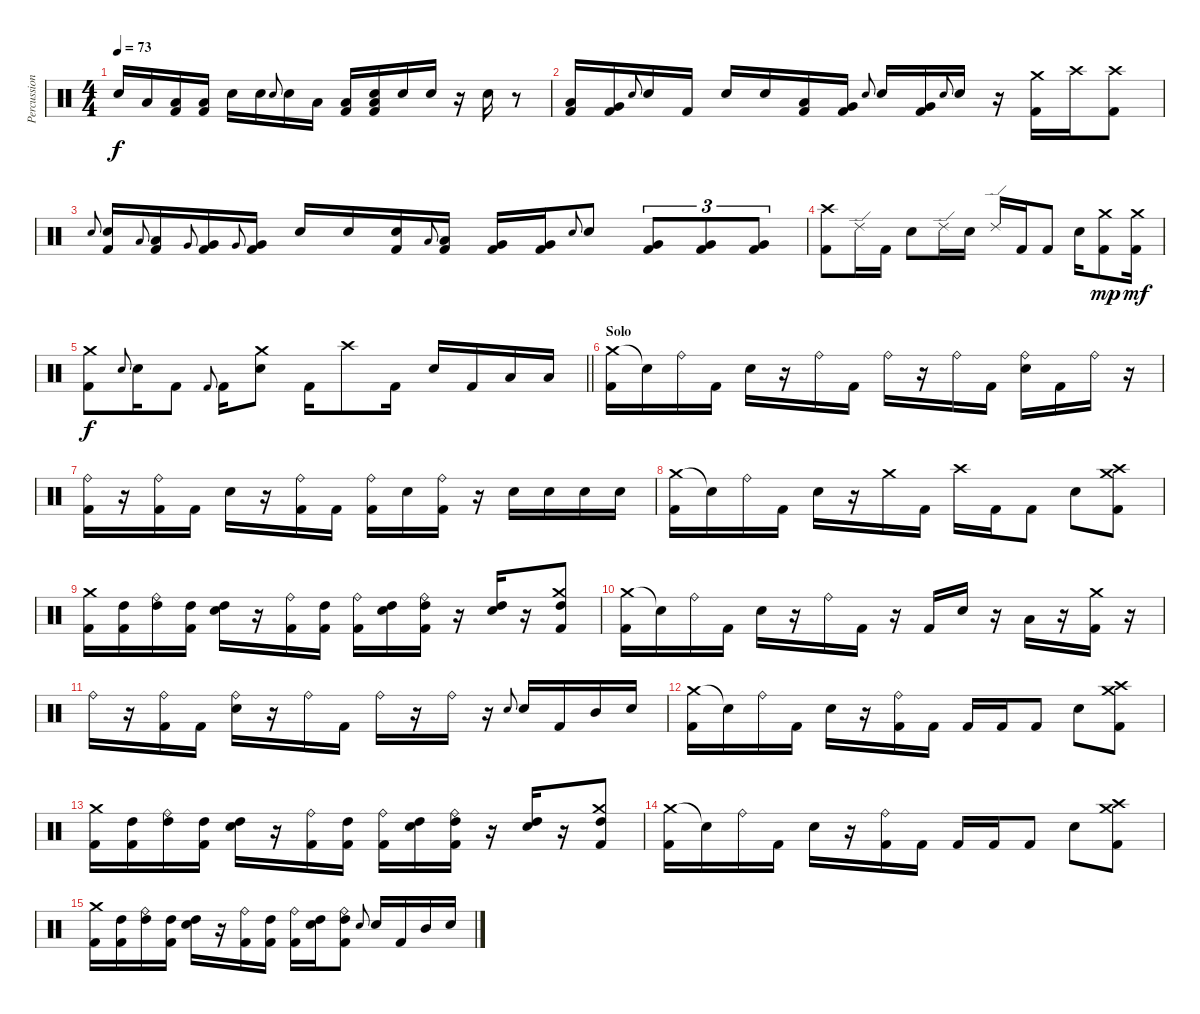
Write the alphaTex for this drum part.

\track ("Percussion" "Percussion") {instrument percussion}
\staff {score}
\articulation defaults
\ts (4 4)
\tempo 73
\clef neutral
\ks c "Snare (hit) 2".16{dy f} "Low Tom (hit)".16
("Low Tom (hit)" "Kick (hit) 2").16 ("Low Tom (hit)" "Kick (hit) 2").16 "Snare (hit) 2".16 "Snare (hit) 2".16 "Snare (hit) 2".8{gr onbeat} "Snare (hit) 2".16 "Low Tom (hit)".16 ("Low Tom (hit)" "Kick (hit) 2").16 ("Snare (hit) 2" "Low Tom (hit)" "Kick (hit) 2").16 "Snare (hit) 2".16 "Snare (hit) 2".16 r.16 "Snare (hit) 2".16 r.8 |
("Low Tom (hit)" "Kick (hit) 2").16 ("Very Low Tom (hit)" "Kick (hit) 2").16 "Snare (hit) 2".8{gr onbeat} "Snare (hit) 2".16 "Kick (hit) 2".16 "Snare (hit) 2".16 "Snare (hit) 2".16 ("Low Tom (hit)" "Kick (hit) 2").16 ("Very Low Tom (hit)" "Kick (hit) 2").16 "Snare (hit) 2".8{gr onbeat} "Snare (hit) 2".16 ("Very Low Tom (hit)" "Kick (hit) 2").16 "Snare (hit) 2".8{gr onbeat} "Snare (hit) 2".16 r.16 ("Crash medium (hit)" "Kick (hit) 2").16 "Crash high (hit)".16 ("Crash high (hit)" "Kick (hit) 2").8 |
"Snare (hit) 2".8{gr onbeat} ("Snare (hit) 2" "Kick (hit) 2").16 "Low Tom (hit)".8{gr onbeat} ("Low Tom (hit)" "Kick (hit) 2").16 "Very Low Tom (hit)".8{gr onbeat} ("Very Low Tom (hit)" "Kick (hit) 2").16 "Very Low Tom (hit)".8{gr onbeat} ("Very Low Tom (hit)" "Kick (hit) 2").16 "Snare (hit) 2".16 "Snare (hit) 2".16 ("Snare (hit) 2" "Kick (hit) 2").16 "Low Tom (hit)".8{gr onbeat} ("Low Tom (hit)" "Kick (hit) 2").16 ("Very Low Tom (hit)" "Kick (hit) 2").16 ("Very Low Tom (hit)" "Kick (hit) 2").16 "Snare (hit) 2".8{gr onbeat} "Snare (hit) 2".8 ("Very Low Tom (hit)" "Kick (hit) 2").8{tu (3 2)} ("Very Low Tom (hit)" "Kick (hit) 2").8{tu (3 2)} ("Very Low Tom (hit)" "Kick (hit) 2").8{tu (3 2)} |
("Crash high (hit)" "Kick (hit) 2").8 "Ride (edge) 2".16 "Kick (hit) 2".16 "Snare (hit) 2".8 "Ride (edge) 2".16 "Snare (hit) 2".16 "Ride (edge) 2".16 "Kick (hit) 2".16 "Kick (hit) 2".8 "Snare (hit) 2".16 ("Crash medium (hit)" "Kick (hit) 2").8{dy mp} ("Crash medium (hit)" "Kick (hit) 2").16{dy mf} |
\barLineRight lightlight
("Crash medium (hit)" "Kick (hit) 2").8{dy f} "Snare (hit) 2".8{gr onbeat} "Snare (hit) 2".16 "Kick (hit) 2".8 "Kick (hit) 2".8{gr onbeat} "Kick (hit) 2".16 ("Crash medium (hit)" "Snare (hit) 2").8 "Kick (hit) 2".16 "Crash high (hit)".8 "Kick (hit) 2".16 "Snare (hit) 2".16 "Kick (hit) 2".16 "Low Tom (hit)".16 "Low Tom (hit)".16 |
\section ("" "Solo")
("Crash medium (hit)" "Kick (hit) 2").16 "Snare (hit)"{t}.16 "Ride (bell)".16 "Kick (hit) 2".16 "Snare (hit) 2".16 r.16 "Ride (bell)".16 "Kick (hit) 2".16 "Ride (bell)".16 r.16 "Ride (bell)".16 "Kick (hit) 2".16 ("Ride (bell)" "Snare (hit) 2").16 "Kick (hit) 2".16 "Ride (bell)".16 r.16 |
("Ride (bell)" "Kick (hit) 2").16 r.16 ("Ride (bell)" "Kick (hit) 2").16 "Kick (hit) 2".16 "Snare (hit) 2".16 r.16 ("Ride (bell)" "Kick (hit) 2").16 "Kick (hit) 2".16 ("Ride (bell)" "Kick (hit) 2").16 "Snare (hit) 2".16 ("Ride (bell)" "Kick (hit) 2").16 r.16 "Snare (hit) 2".16 "Snare (hit) 2".16 "Snare (hit) 2".16 "Snare (hit) 2".16 |
("Crash medium (hit)" "Kick (hit) 2").16 "Snare (hit)"{t}.16 "Ride (bell)".16 "Kick (hit) 2".16 "Snare (hit) 2".16 r.16 "Crash medium (hit)".16 "Kick (hit) 2".16 "Crash high (hit)".16 "Kick (hit) 2".16 "Kick (hit) 2".8 "Snare (hit) 2".8 ("Crash high (hit)" "Crash medium (hit)" "Kick (hit) 2").8 |
("Crash medium (hit)" "Kick (hit) 2").16 ("High Tom (hit)" "Kick (hit) 2").16 ("Ride (bell)" "High Tom (hit)").16 ("High Tom (hit)" "Kick (hit) 2").16 ("High Tom (hit)" "Snare (hit) 2").16 r.16 ("Ride (bell)" "Kick (hit) 2").16 ("High Tom (hit)" "Kick (hit) 2").16 ("Ride (bell)" "Kick (hit) 2").16 ("High Tom (hit)" "Snare (hit) 2").16 ("Ride (bell)" "High Tom (hit)" "Kick (hit) 2").16 r.16 ("High Tom (hit)" "Snare (hit) 2").16 r.16 ("Crash medium (hit)" "High Tom (hit)" "Kick (hit) 2").8 |
("Crash medium (hit)" "Kick (hit) 2").16 "Snare (hit)"{t}.16 "Ride (bell)".16 "Kick (hit) 2".16 "Snare (hit) 2".16 r.16 "Ride (bell)".16 "Kick (hit) 2".16 r.16 "Kick (hit) 2".16 "Snare (hit) 2".16 r.16 "Low Tom (hit)".16 r.16 ("Crash medium (hit)" "Kick (hit) 2").16 r.16 |
"Ride (bell)".16 r.16 ("Ride (bell)" "Kick (hit) 2").16 "Kick (hit) 2".16 ("Ride (bell)" "Snare (hit) 2").16 r.16 "Ride (bell)".16 "Kick (hit) 2".16 "Ride (bell)".16 r.16 "Ride (bell)".16 r.16 "Snare (hit) 2".8{gr onbeat} "Snare (hit) 2".16 "Kick (hit) 2".16 "Mid Tom (hit)".16 "Snare (hit) 2".16 |
("Crash medium (hit)" "Kick (hit) 2").16 "Snare (hit)"{t}.16 "Ride (bell)".16 "Kick (hit) 2".16 "Snare (hit) 2".16 r.16 ("Ride (bell)" "Kick (hit) 2").16 "Kick (hit) 2".16 "Kick (hit) 2".16 "Kick (hit) 2".16 "Kick (hit) 2".8 "Snare (hit) 2".8 ("Crash high (hit)" "Crash medium (hit)" "Kick (hit) 2").8 |
("Crash medium (hit)" "Kick (hit) 2").16 ("High Tom (hit)" "Kick (hit) 2").16 ("Ride (bell)" "High Tom (hit)").16 ("High Tom (hit)" "Kick (hit) 2").16 ("High Tom (hit)" "Snare (hit) 2").16 r.16 ("Ride (bell)" "Kick (hit) 2").16 ("High Tom (hit)" "Kick (hit) 2").16 ("Ride (bell)" "Kick (hit) 2").16 ("High Tom (hit)" "Snare (hit) 2").16 ("Ride (bell)" "High Tom (hit)" "Kick (hit) 2").16 r.16 ("High Tom (hit)" "Snare (hit) 2").16 r.16 ("Crash medium (hit)" "High Tom (hit)" "Kick (hit) 2").8 |
("Crash medium (hit)" "Kick (hit) 2").16 "Snare (hit)"{t}.16 "Ride (bell)".16 "Kick (hit) 2".16 "Snare (hit) 2".16 r.16 ("Ride (bell)" "Kick (hit) 2").16 "Kick (hit) 2".16 "Kick (hit) 2".16 "Kick (hit) 2".16 "Kick (hit) 2".8 "Snare (hit) 2".8 ("Crash high (hit)" "Crash medium (hit)" "Kick (hit) 2").8 |
("Crash medium (hit)" "Kick (hit) 2").16 ("High Tom (hit)" "Kick (hit) 2").16 ("Ride (bell)" "High Tom (hit)").16 ("High Tom (hit)" "Kick (hit) 2").16 ("High Tom (hit)" "Snare (hit) 2").16 r.16 ("Ride (bell)" "Kick (hit) 2").16 ("High Tom (hit)" "Kick (hit) 2").16 ("Ride (bell)" "Kick (hit) 2").16 ("High Tom (hit)" "Snare (hit) 2").16 ("Ride (bell)" "High Tom (hit)" "Kick (hit) 2").8 "Snare (hit) 2".8{gr onbeat} "Snare (hit) 2".16 "Kick (hit) 2".16 "Mid Tom (hit)".16 "Snare (hit) 2".16
